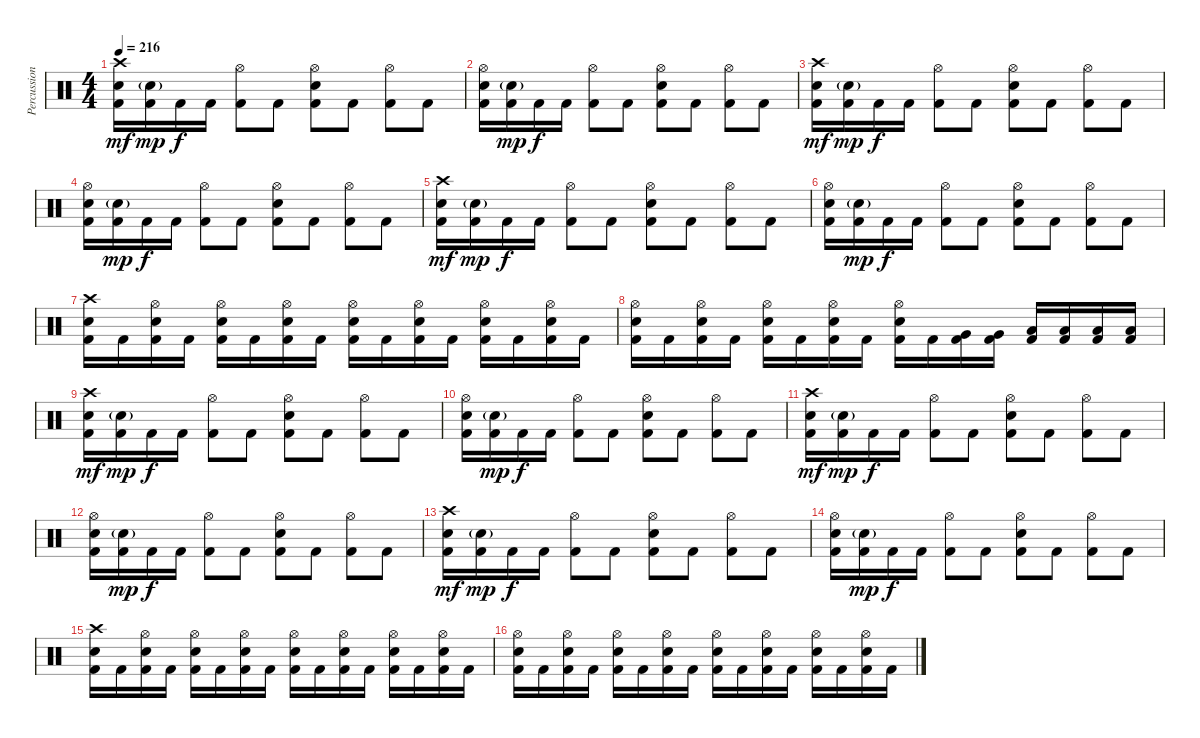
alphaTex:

\track ("Percussions" "Percussion") {instrument percussion}
\staff {score}
\articulation defaults
\ts (4 4)
\tempo 216
\clef neutral
\ks c
("Crash high (hit)" "Electric Snare (hit)" "Kick (hit) 2").16{dy mf} ("Electric Snare (hit)"{g} "Kick (hit) 2").16{dy mp} "Kick (hit) 2".16{dy f} "Kick (hit) 2".16 ("Hi-Hat (open)" "Kick (hit) 2").8 "Kick (hit) 2".8 ("Hi-Hat (open)" "Electric Snare (hit)" "Kick (hit) 2").8 "Kick (hit) 2".8 ("Hi-Hat (open)" "Kick (hit) 2").8 "Kick (hit) 2".8 |
("Hi-Hat (open)" "Electric Snare (hit)" "Kick (hit) 2").16 ("Electric Snare (hit)"{g} "Kick (hit) 2").16{dy mp} "Kick (hit) 2".16{dy f} "Kick (hit) 2".16 ("Hi-Hat (open)" "Kick (hit) 2").8 "Kick (hit) 2".8 ("Hi-Hat (open)" "Electric Snare (hit)" "Kick (hit) 2").8 "Kick (hit) 2".8 ("Hi-Hat (open)" "Kick (hit) 2").8 "Kick (hit) 2".8 |
("Crash high (hit)" "Electric Snare (hit)" "Kick (hit) 2").16{dy mf} ("Electric Snare (hit)"{g} "Kick (hit) 2").16{dy mp} "Kick (hit) 2".16{dy f} "Kick (hit) 2".16 ("Hi-Hat (open)" "Kick (hit) 2").8 "Kick (hit) 2".8 ("Hi-Hat (open)" "Electric Snare (hit)" "Kick (hit) 2").8 "Kick (hit) 2".8 ("Hi-Hat (open)" "Kick (hit) 2").8 "Kick (hit) 2".8 |
("Hi-Hat (open)" "Electric Snare (hit)" "Kick (hit) 2").16 ("Electric Snare (hit)"{g} "Kick (hit) 2").16{dy mp} "Kick (hit) 2".16{dy f} "Kick (hit) 2".16 ("Hi-Hat (open)" "Kick (hit) 2").8 "Kick (hit) 2".8 ("Hi-Hat (open)" "Electric Snare (hit)" "Kick (hit) 2").8 "Kick (hit) 2".8 ("Hi-Hat (open)" "Kick (hit) 2").8 "Kick (hit) 2".8 |
("Crash high (hit)" "Electric Snare (hit)" "Kick (hit) 2").16{dy mf} ("Electric Snare (hit)"{g} "Kick (hit) 2").16{dy mp} "Kick (hit) 2".16{dy f} "Kick (hit) 2".16 ("Hi-Hat (open)" "Kick (hit) 2").8 "Kick (hit) 2".8 ("Hi-Hat (open)" "Electric Snare (hit)" "Kick (hit) 2").8 "Kick (hit) 2".8 ("Hi-Hat (open)" "Kick (hit) 2").8 "Kick (hit) 2".8 |
("Hi-Hat (open)" "Electric Snare (hit)" "Kick (hit) 2").16 ("Electric Snare (hit)"{g} "Kick (hit) 2").16{dy mp} "Kick (hit) 2".16{dy f} "Kick (hit) 2".16 ("Hi-Hat (open)" "Kick (hit) 2").8 "Kick (hit) 2".8 ("Hi-Hat (open)" "Electric Snare (hit)" "Kick (hit) 2").8 "Kick (hit) 2".8 ("Hi-Hat (open)" "Kick (hit) 2").8 "Kick (hit) 2".8 |
("Crash high (hit)" "Electric Snare (hit)" "Kick (hit) 2").16 "Kick (hit) 2".16 ("Hi-Hat (open)" "Electric Snare (hit)" "Kick (hit) 2").16 "Kick (hit) 2".16 ("Hi-Hat (open)" "Electric Snare (hit)" "Kick (hit) 2").16 "Kick (hit) 2".16 ("Hi-Hat (open)" "Electric Snare (hit)" "Kick (hit) 2").16 "Kick (hit) 2".16 ("Hi-Hat (open)" "Electric Snare (hit)" "Kick (hit) 2").16 "Kick (hit) 2".16 ("Hi-Hat (open)" "Electric Snare (hit)" "Kick (hit) 2").16 "Kick (hit) 2".16 ("Hi-Hat (open)" "Electric Snare (hit)" "Kick (hit) 2").16 "Kick (hit) 2".16 ("Hi-Hat (open)" "Electric Snare (hit)" "Kick (hit) 2").16 "Kick (hit) 2".16 |
("Hi-Hat (open)" "Electric Snare (hit)" "Kick (hit) 2").16 "Kick (hit) 2".16 ("Hi-Hat (open)" "Electric Snare (hit)" "Kick (hit) 2").16 "Kick (hit) 2".16 ("Hi-Hat (open)" "Electric Snare (hit)" "Kick (hit) 2").16 "Kick (hit) 2".16 ("Hi-Hat (open)" "Electric Snare (hit)" "Kick (hit) 2").16 "Kick (hit) 2".16 ("Hi-Hat (open)" "Electric Snare (hit)" "Kick (hit) 2").16 "Kick (hit) 2".16 ("Very Low Tom (hit)" "Kick (hit) 2").16 ("Very Low Tom (hit)" "Kick (hit) 2").16 ("Low Tom (hit)" "Kick (hit) 2").16 ("Low Tom (hit)" "Kick (hit) 2").16 ("Low Tom (hit)" "Kick (hit) 2").16 ("Low Tom (hit)" "Kick (hit) 2").16 |
("Crash high (hit)" "Electric Snare (hit)" "Kick (hit) 2").16{dy mf} ("Electric Snare (hit)"{g} "Kick (hit) 2").16{dy mp} "Kick (hit) 2".16{dy f} "Kick (hit) 2".16 ("Hi-Hat (open)" "Kick (hit) 2").8 "Kick (hit) 2".8 ("Hi-Hat (open)" "Electric Snare (hit)" "Kick (hit) 2").8 "Kick (hit) 2".8 ("Hi-Hat (open)" "Kick (hit) 2").8 "Kick (hit) 2".8 |
("Hi-Hat (open)" "Electric Snare (hit)" "Kick (hit) 2").16 ("Electric Snare (hit)"{g} "Kick (hit) 2").16{dy mp} "Kick (hit) 2".16{dy f} "Kick (hit) 2".16 ("Hi-Hat (open)" "Kick (hit) 2").8 "Kick (hit) 2".8 ("Hi-Hat (open)" "Electric Snare (hit)" "Kick (hit) 2").8 "Kick (hit) 2".8 ("Hi-Hat (open)" "Kick (hit) 2").8 "Kick (hit) 2".8 |
("Crash high (hit)" "Electric Snare (hit)" "Kick (hit) 2").16{dy mf} ("Electric Snare (hit)"{g} "Kick (hit) 2").16{dy mp} "Kick (hit) 2".16{dy f} "Kick (hit) 2".16 ("Hi-Hat (open)" "Kick (hit) 2").8 "Kick (hit) 2".8 ("Hi-Hat (open)" "Electric Snare (hit)" "Kick (hit) 2").8 "Kick (hit) 2".8 ("Hi-Hat (open)" "Kick (hit) 2").8 "Kick (hit) 2".8 |
("Hi-Hat (open)" "Electric Snare (hit)" "Kick (hit) 2").16 ("Electric Snare (hit)"{g} "Kick (hit) 2").16{dy mp} "Kick (hit) 2".16{dy f} "Kick (hit) 2".16 ("Hi-Hat (open)" "Kick (hit) 2").8 "Kick (hit) 2".8 ("Hi-Hat (open)" "Electric Snare (hit)" "Kick (hit) 2").8 "Kick (hit) 2".8 ("Hi-Hat (open)" "Kick (hit) 2").8 "Kick (hit) 2".8 |
("Crash high (hit)" "Electric Snare (hit)" "Kick (hit) 2").16{dy mf} ("Electric Snare (hit)"{g} "Kick (hit) 2").16{dy mp} "Kick (hit) 2".16{dy f} "Kick (hit) 2".16 ("Hi-Hat (open)" "Kick (hit) 2").8 "Kick (hit) 2".8 ("Hi-Hat (open)" "Electric Snare (hit)" "Kick (hit) 2").8 "Kick (hit) 2".8 ("Hi-Hat (open)" "Kick (hit) 2").8 "Kick (hit) 2".8 |
("Hi-Hat (open)" "Electric Snare (hit)" "Kick (hit) 2").16 ("Electric Snare (hit)"{g} "Kick (hit) 2").16{dy mp} "Kick (hit) 2".16{dy f} "Kick (hit) 2".16 ("Hi-Hat (open)" "Kick (hit) 2").8 "Kick (hit) 2".8 ("Hi-Hat (open)" "Electric Snare (hit)" "Kick (hit) 2").8 "Kick (hit) 2".8 ("Hi-Hat (open)" "Kick (hit) 2").8 "Kick (hit) 2".8 |
("Crash high (hit)" "Electric Snare (hit)" "Kick (hit) 2").16 "Kick (hit) 2".16 ("Hi-Hat (open)" "Electric Snare (hit)" "Kick (hit) 2").16 "Kick (hit) 2".16 ("Hi-Hat (open)" "Electric Snare (hit)" "Kick (hit) 2").16 "Kick (hit) 2".16 ("Hi-Hat (open)" "Electric Snare (hit)" "Kick (hit) 2").16 "Kick (hit) 2".16 ("Hi-Hat (open)" "Electric Snare (hit)" "Kick (hit) 2").16 "Kick (hit) 2".16 ("Hi-Hat (open)" "Electric Snare (hit)" "Kick (hit) 2").16 "Kick (hit) 2".16 ("Hi-Hat (open)" "Electric Snare (hit)" "Kick (hit) 2").16 "Kick (hit) 2".16 ("Hi-Hat (open)" "Electric Snare (hit)" "Kick (hit) 2").16 "Kick (hit) 2".16 |
("Hi-Hat (open)" "Electric Snare (hit)" "Kick (hit) 2").16 "Kick (hit) 2".16 ("Hi-Hat (open)" "Electric Snare (hit)" "Kick (hit) 2").16 "Kick (hit) 2".16 ("Hi-Hat (open)" "Electric Snare (hit)" "Kick (hit) 2").16 "Kick (hit) 2".16 ("Hi-Hat (open)" "Electric Snare (hit)" "Kick (hit) 2").16 "Kick (hit) 2".16 ("Hi-Hat (open)" "Electric Snare (hit)" "Kick (hit) 2").16 "Kick (hit) 2".16 ("Hi-Hat (open)" "Electric Snare (hit)" "Kick (hit) 2").16 "Kick (hit) 2".16 ("Hi-Hat (open)" "Electric Snare (hit)" "Kick (hit) 2").16 "Kick (hit) 2".16 ("Hi-Hat (open)" "Electric Snare (hit)" "Kick (hit) 2").16 "Kick (hit) 2".16
